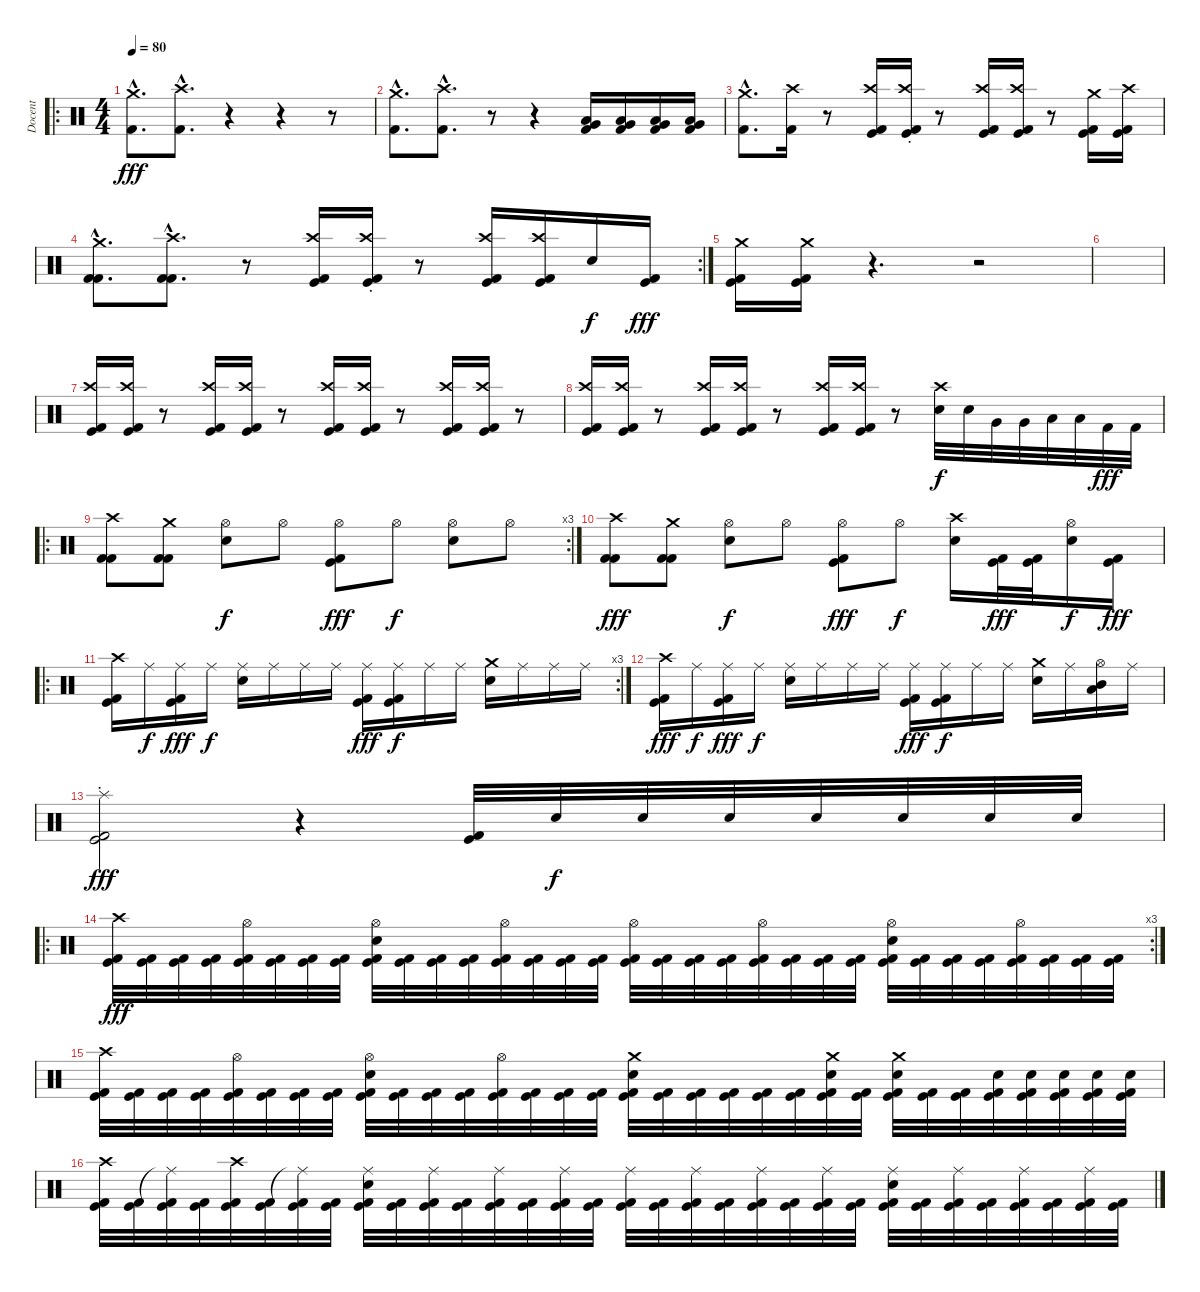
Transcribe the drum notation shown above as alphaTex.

\track ("Docent" "Docent") {instrument percussion}
\staff {score}
\articulation defaults
\ro
\ts (4 4)
\tempo 80
\clef neutral
\ks c
("Crash medium (hit)"{hac} "Kick (hit) 2"{hac}).8{d dy fff} ("Crash high (hit)"{hac} "Kick (hit) 2"{hac}).8{d} r.4 r.4 r.8 |
("Crash medium (hit)"{hac} "Kick (hit) 2"{hac}).8{d} ("Crash high (hit)"{hac} "Kick (hit) 2"{hac}).8{d} r.8 r.4 ("Low Tom (hit)" "Very Low Tom (hit)" "Kick (hit) 2").16 ("Low Tom (hit)" "Very Low Tom (hit)" "Kick (hit) 2").16 ("Low Tom (hit)" "Very Low Tom (hit)" "Kick (hit) 2").16 ("Low Tom (hit)" "Very Low Tom (hit)" "Kick (hit) 2").16 |
("Crash medium (hit)"{hac} "Kick (hit) 2"{hac}).8{d} ("Crash high (hit)" "Kick (hit) 2").16 r.8 ("Crash high (hit)" "Kick (hit)" "Kick (hit) 2").16 ("Crash high (hit)"{st} "Kick (hit)" "Kick (hit) 2").16 r.8 ("Crash high (hit)" "Kick (hit)" "Kick (hit) 2").16 ("Crash high (hit)" "Kick (hit)" "Kick (hit) 2").16 r.8 ("Crash medium (hit)" "Kick (hit)" "Kick (hit) 2").16 ("Crash high (hit)" "Kick (hit)" "Kick (hit) 2").16 |
\rc 2
("Crash medium (hit)"{hac} "Kick (hit) 2"{hac} "Kick (hit) 2"{hac}).8{d} ("Crash high (hit)"{hac} "Kick (hit) 2"{hac} "Kick (hit) 2"{hac}).8{d} r.8 ("Crash high (hit)" "Kick (hit)" "Kick (hit) 2").16 ("Crash high (hit)"{st} "Kick (hit)" "Kick (hit) 2").16 r.8 ("Crash high (hit)" "Kick (hit)" "Kick (hit) 2").16 ("Crash high (hit)" "Kick (hit)" "Kick (hit) 2").16 "Electric Snare (hit)".16{dy f} ("Kick (hit)" "Kick (hit) 2").16{dy fff} |
("Crash medium (hit)" "Kick (hit)" "Kick (hit) 2").16 ("Crash medium (hit)" "Kick (hit)" "Kick (hit) 2").16 r.4{d} r.2 |
|
("Crash high (hit)" "Kick (hit)" "Kick (hit) 2").16 ("Crash high (hit)" "Kick (hit)" "Kick (hit) 2").16 r.8 ("Crash high (hit)" "Kick (hit)" "Kick (hit) 2").16 ("Crash high (hit)" "Kick (hit)" "Kick (hit) 2").16 r.8 ("Crash high (hit)" "Kick (hit)" "Kick (hit) 2").16 ("Crash high (hit)" "Kick (hit)" "Kick (hit) 2").16 r.8 ("Crash high (hit)" "Kick (hit)" "Kick (hit) 2").16 ("Crash high (hit)" "Kick (hit)" "Kick (hit) 2").16 r.8 |
("Crash high (hit)" "Kick (hit)" "Kick (hit) 2").16 ("Crash high (hit)" "Kick (hit)" "Kick (hit) 2").16 r.8 ("Crash high (hit)" "Kick (hit)" "Kick (hit) 2").16 ("Crash high (hit)" "Kick (hit)" "Kick (hit) 2").16 r.8 ("Crash high (hit)" "Kick (hit)" "Kick (hit) 2").16 ("Crash high (hit)" "Kick (hit)" "Kick (hit) 2").16 r.8 ("Crash high (hit)" "Electric Snare (hit)").32{dy f} "Electric Snare (hit)".32 "Very Low Tom (hit)".32 "Very Low Tom (hit)".32 "Low Tom (hit)".32 "Low Tom (hit)".32 "Kick (hit) 2".32{dy fff} "Kick (hit) 2".32 |
\ro
\rc 3
("Crash high (hit)" "Kick (hit) 2" "Kick (hit) 2").8 ("Crash medium (hit)" "Kick (hit) 2" "Kick (hit) 2").8 ("Hi-Hat (open)" "Electric Snare (hit)").8{dy f} "Hi-Hat (open)".8 ("Hi-Hat (open)" "Kick (hit)" "Kick (hit) 2").8{dy fff} "Hi-Hat (open)".8{dy f} ("Hi-Hat (open)" "Electric Snare (hit)").8 "Hi-Hat (open)".8 |
("Crash high (hit)" "Kick (hit) 2" "Kick (hit) 2").8{dy fff} ("Crash medium (hit)" "Kick (hit) 2" "Kick (hit) 2").8 ("Hi-Hat (open)" "Electric Snare (hit)").8{dy f} "Hi-Hat (open)".8 ("Hi-Hat (open)" "Kick (hit)" "Kick (hit) 2").8{dy fff} "Hi-Hat (open)".8{dy f} ("Crash high (hit)" "Electric Snare (hit)").16 ("Kick (hit)" "Kick (hit) 2").32{dy fff} ("Kick (hit)" "Kick (hit) 2").32 ("Hi-Hat (open)" "Electric Snare (hit)").16{dy f} ("Kick (hit)" "Kick (hit) 2").16{dy fff} |
\ro
\rc 3
("Crash high (hit)" "Kick (hit)" "Kick (hit) 2").16 "Ride (middle)".16{dy f} ("Ride (middle)" "Kick (hit)" "Kick (hit) 2").16{dy fff} "Ride (middle)".16{dy f} ("Ride (middle)" "Electric Snare (hit)").16 "Ride (middle)".16 "Ride (middle)".16 "Ride (middle)".16 ("Ride (middle)" "Kick (hit)" "Kick (hit) 2").16{dy fff} ("Ride (middle)" "Kick (hit)" "Kick (hit) 2").16{dy f} "Ride (middle)".16 "Ride (middle)".16 ("Crash medium (hit)" "Electric Snare (hit)").16 "Ride (middle)".16 "Ride (middle)".16 "Ride (middle)".16 |
("Crash high (hit)" "Kick (hit)" "Kick (hit) 2").16{dy fff} "Ride (middle)".16{dy f} ("Ride (middle)" "Kick (hit)" "Kick (hit) 2").16{dy fff} "Ride (middle)".16{dy f} ("Ride (middle)" "Electric Snare (hit)").16 "Ride (middle)".16 "Ride (middle)".16 "Ride (middle)".16 ("Ride (middle)" "Kick (hit)" "Kick (hit) 2").16{dy fff} ("Ride (middle)" "Kick (hit)" "Kick (hit) 2").16{dy f} "Ride (middle)".16 "Ride (middle)".16 ("Crash medium (hit)" "Electric Snare (hit)").16 "Ride (middle)".16 ("Hi-Hat (open)" "Mid Tom (hit)" "Low Tom (hit)").16 "Ride (middle)".16 |
("Kick (hit)" "Kick (hit) 2" "Splash (hit)"{st}).2{dy fff} r.4 ("Kick (hit)" "Kick (hit) 2").32 "Electric Snare (hit)".32{dy f} "Electric Snare (hit)".32 "Electric Snare (hit)".32 "Electric Snare (hit)".32 "Electric Snare (hit)".32 "Electric Snare (hit)".32 "Electric Snare (hit)".32 |
\ro
\rc 3
("Crash high (hit)" "Kick (hit)" "Kick (hit) 2").32{dy fff} ("Kick (hit)" "Kick (hit) 2").32 ("Kick (hit)" "Kick (hit) 2").32 ("Kick (hit)" "Kick (hit) 2").32 ("Hi-Hat (open)" "Kick (hit)" "Kick (hit) 2").32 ("Kick (hit)" "Kick (hit) 2").32 ("Kick (hit)" "Kick (hit) 2").32 ("Kick (hit)" "Kick (hit) 2").32 ("Hi-Hat (open)" "Electric Snare (hit)" "Kick (hit)" "Kick (hit) 2").32 ("Kick (hit)" "Kick (hit) 2").32 ("Kick (hit)" "Kick (hit) 2").32 ("Kick (hit)" "Kick (hit) 2").32 ("Hi-Hat (open)" "Kick (hit)" "Kick (hit) 2").32 ("Kick (hit)" "Kick (hit) 2").32 ("Kick (hit)" "Kick (hit) 2").32 ("Kick (hit)" "Kick (hit) 2").32 ("Hi-Hat (open)" "Kick (hit)" "Kick (hit) 2").32 ("Kick (hit)" "Kick (hit) 2").32 ("Kick (hit)" "Kick (hit) 2").32 ("Kick (hit)" "Kick (hit) 2").32 ("Hi-Hat (open)" "Kick (hit)" "Kick (hit) 2").32 ("Kick (hit)" "Kick (hit) 2").32 ("Kick (hit)" "Kick (hit) 2").32 ("Kick (hit)" "Kick (hit) 2").32 ("Hi-Hat (open)" "Electric Snare (hit)" "Kick (hit)" "Kick (hit) 2").32 ("Kick (hit)" "Kick (hit) 2").32 ("Kick (hit)" "Kick (hit) 2").32 ("Kick (hit)" "Kick (hit) 2").32 ("Hi-Hat (open)" "Kick (hit)" "Kick (hit) 2").32 ("Kick (hit)" "Kick (hit) 2").32 ("Kick (hit)" "Kick (hit) 2").32 ("Kick (hit)" "Kick (hit) 2").32 |
("Crash high (hit)" "Kick (hit)" "Kick (hit) 2").32 ("Kick (hit)" "Kick (hit) 2").32 ("Kick (hit)" "Kick (hit) 2").32 ("Kick (hit)" "Kick (hit) 2").32 ("Hi-Hat (open)" "Kick (hit)" "Kick (hit) 2").32 ("Kick (hit)" "Kick (hit) 2").32 ("Kick (hit)" "Kick (hit) 2").32 ("Kick (hit)" "Kick (hit) 2").32 ("Hi-Hat (open)" "Electric Snare (hit)" "Kick (hit)" "Kick (hit) 2").32 ("Kick (hit)" "Kick (hit) 2").32 ("Kick (hit)" "Kick (hit) 2").32 ("Kick (hit)" "Kick (hit) 2").32 ("Hi-Hat (open)" "Kick (hit)" "Kick (hit) 2").32 ("Kick (hit)" "Kick (hit) 2").32 ("Kick (hit)" "Kick (hit) 2").32 ("Kick (hit)" "Kick (hit) 2").32 ("Crash medium (hit)" "Electric Snare (hit)" "Kick (hit)" "Kick (hit) 2").32 ("Kick (hit)" "Kick (hit) 2").32 ("Kick (hit)" "Kick (hit) 2").32 ("Kick (hit)" "Kick (hit) 2").32 ("Kick (hit)" "Kick (hit) 2").32 ("Kick (hit)" "Kick (hit) 2").32 ("Crash medium (hit)" "Electric Snare (hit)" "Kick (hit)" "Kick (hit) 2").32 ("Kick (hit)" "Kick (hit) 2").32 ("Crash medium (hit)" "Electric Snare (hit)" "Kick (hit)" "Kick (hit) 2").32 ("Kick (hit)" "Kick (hit) 2").32 ("Kick (hit)" "Kick (hit) 2").32 ("Electric Snare (hit)" "Kick (hit)" "Kick (hit) 2").32 ("Electric Snare (hit)" "Kick (hit)" "Kick (hit) 2").32 ("Electric Snare (hit)" "Kick (hit)" "Kick (hit) 2").32 ("Electric Snare (hit)" "Kick (hit)" "Kick (hit) 2").32 ("Electric Snare (hit)" "Kick (hit)" "Kick (hit) 2").32 |
("Crash high (hit)" "Kick (hit)" "Kick (hit) 2").32 ("Kick (hit)" "Kick (hit) 2").32 ("Ride (middle)"{t} "Kick (hit)" "Kick (hit) 2").32 ("Kick (hit)" "Kick (hit) 2").32 ("Crash high (hit)" "Kick (hit)" "Kick (hit) 2").32 ("Kick (hit)" "Kick (hit) 2").32 ("Ride (middle)"{t} "Kick (hit)" "Kick (hit) 2").32 ("Kick (hit)" "Kick (hit) 2").32 ("Ride (middle)" "Electric Snare (hit)" "Kick (hit)" "Kick (hit) 2").32 ("Kick (hit)" "Kick (hit) 2").32 ("Ride (middle)" "Kick (hit)" "Kick (hit) 2").32 ("Kick (hit)" "Kick (hit) 2").32 ("Ride (middle)" "Kick (hit)" "Kick (hit) 2").32 ("Kick (hit)" "Kick (hit) 2").32 ("Ride (middle)" "Kick (hit)" "Kick (hit) 2").32 ("Kick (hit)" "Kick (hit) 2").32 ("Ride (middle)" "Kick (hit)" "Kick (hit) 2").32 ("Kick (hit)" "Kick (hit) 2").32 ("Ride (middle)" "Kick (hit)" "Kick (hit) 2").32 ("Kick (hit)" "Kick (hit) 2").32 ("Ride (middle)" "Kick (hit)" "Kick (hit) 2").32 ("Kick (hit)" "Kick (hit) 2").32 ("Ride (middle)" "Kick (hit)" "Kick (hit) 2").32 ("Kick (hit)" "Kick (hit) 2").32 ("Ride (middle)" "Electric Snare (hit)" "Kick (hit)" "Kick (hit) 2").32 ("Kick (hit)" "Kick (hit) 2").32 ("Ride (middle)" "Kick (hit)" "Kick (hit) 2").32 ("Kick (hit)" "Kick (hit) 2").32 ("Ride (middle)" "Kick (hit)" "Kick (hit) 2").32 ("Kick (hit)" "Kick (hit) 2").32 ("Ride (middle)" "Kick (hit)" "Kick (hit) 2").32 ("Kick (hit)" "Kick (hit) 2").32
